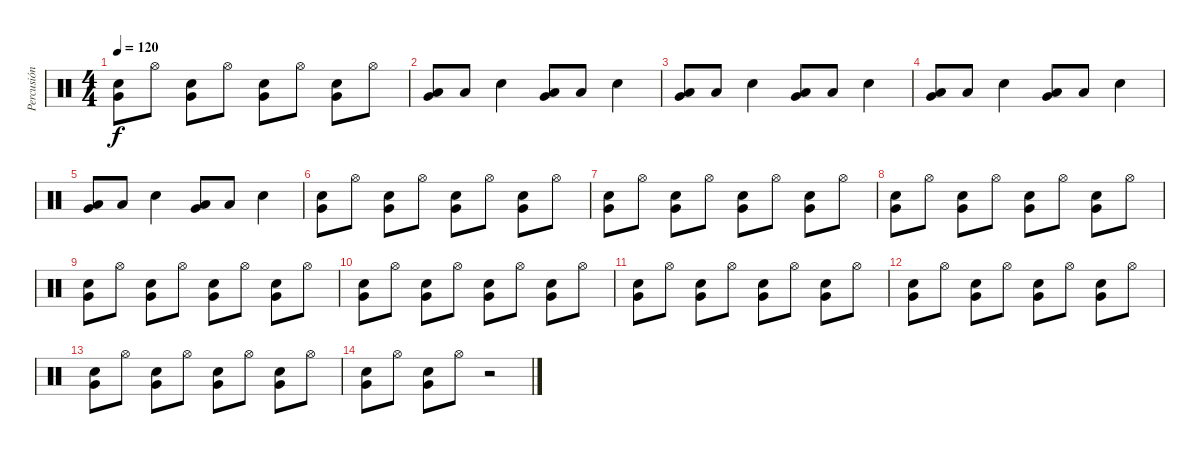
\track ("Percusión" "Percusión") {instrument percussion}
\staff {score}
\articulation defaults
\ts (4 4)
\tempo 120
\clef neutral
\ks c
("Electric Snare (hit)" "Very Low Tom (hit)").8{dy f} "Hi-Hat (open)".8 ("Electric Snare (hit)" "Very Low Tom (hit)").8 "Hi-Hat (open)".8 ("Electric Snare (hit)" "Very Low Tom (hit)").8 "Hi-Hat (open)".8 ("Electric Snare (hit)" "Very Low Tom (hit)").8 "Hi-Hat (open)".8 |
("Low Floor Tom (hit)" "Very Low Tom (hit)").8 "Low Floor Tom (hit)".8 "Electric Snare (hit)".4 ("Low Floor Tom (hit)" "Very Low Tom (hit)").8 "Low Floor Tom (hit)".8 "Electric Snare (hit)".4 |
("Low Floor Tom (hit)" "Very Low Tom (hit)").8 "Low Floor Tom (hit)".8 "Electric Snare (hit)".4 ("Low Floor Tom (hit)" "Very Low Tom (hit)").8 "Low Floor Tom (hit)".8 "Electric Snare (hit)".4 |
("Low Floor Tom (hit)" "Very Low Tom (hit)").8 "Low Floor Tom (hit)".8 "Electric Snare (hit)".4 ("Low Floor Tom (hit)" "Very Low Tom (hit)").8 "Low Floor Tom (hit)".8 "Electric Snare (hit)".4 |
("Low Floor Tom (hit)" "Very Low Tom (hit)").8 "Low Floor Tom (hit)".8 "Electric Snare (hit)".4 ("Low Floor Tom (hit)" "Very Low Tom (hit)").8 "Low Floor Tom (hit)".8 "Electric Snare (hit)".4 |
("Electric Snare (hit)" "Very Low Tom (hit)").8 "Hi-Hat (open)".8 ("Electric Snare (hit)" "Very Low Tom (hit)").8 "Hi-Hat (open)".8 ("Electric Snare (hit)" "Very Low Tom (hit)").8 "Hi-Hat (open)".8 ("Electric Snare (hit)" "Very Low Tom (hit)").8 "Hi-Hat (open)".8 |
("Electric Snare (hit)" "Very Low Tom (hit)").8 "Hi-Hat (open)".8 ("Electric Snare (hit)" "Very Low Tom (hit)").8 "Hi-Hat (open)".8 ("Electric Snare (hit)" "Very Low Tom (hit)").8 "Hi-Hat (open)".8 ("Electric Snare (hit)" "Very Low Tom (hit)").8 "Hi-Hat (open)".8 |
("Electric Snare (hit)" "Very Low Tom (hit)").8 "Hi-Hat (open)".8 ("Electric Snare (hit)" "Very Low Tom (hit)").8 "Hi-Hat (open)".8 ("Electric Snare (hit)" "Very Low Tom (hit)").8 "Hi-Hat (open)".8 ("Electric Snare (hit)" "Very Low Tom (hit)").8 "Hi-Hat (open)".8 |
("Electric Snare (hit)" "Very Low Tom (hit)").8 "Hi-Hat (open)".8 ("Electric Snare (hit)" "Very Low Tom (hit)").8 "Hi-Hat (open)".8 ("Electric Snare (hit)" "Very Low Tom (hit)").8 "Hi-Hat (open)".8 ("Electric Snare (hit)" "Very Low Tom (hit)").8 "Hi-Hat (open)".8 |
("Electric Snare (hit)" "Very Low Tom (hit)").8 "Hi-Hat (open)".8 ("Electric Snare (hit)" "Very Low Tom (hit)").8 "Hi-Hat (open)".8 ("Electric Snare (hit)" "Very Low Tom (hit)").8 "Hi-Hat (open)".8 ("Electric Snare (hit)" "Very Low Tom (hit)").8 "Hi-Hat (open)".8 |
("Electric Snare (hit)" "Very Low Tom (hit)").8 "Hi-Hat (open)".8 ("Electric Snare (hit)" "Very Low Tom (hit)").8 "Hi-Hat (open)".8 ("Electric Snare (hit)" "Very Low Tom (hit)").8 "Hi-Hat (open)".8 ("Electric Snare (hit)" "Very Low Tom (hit)").8 "Hi-Hat (open)".8 |
("Electric Snare (hit)" "Very Low Tom (hit)").8 "Hi-Hat (open)".8 ("Electric Snare (hit)" "Very Low Tom (hit)").8 "Hi-Hat (open)".8 ("Electric Snare (hit)" "Very Low Tom (hit)").8 "Hi-Hat (open)".8 ("Electric Snare (hit)" "Very Low Tom (hit)").8 "Hi-Hat (open)".8 |
("Electric Snare (hit)" "Very Low Tom (hit)").8 "Hi-Hat (open)".8 ("Electric Snare (hit)" "Very Low Tom (hit)").8 "Hi-Hat (open)".8 ("Electric Snare (hit)" "Very Low Tom (hit)").8 "Hi-Hat (open)".8 ("Electric Snare (hit)" "Very Low Tom (hit)").8 "Hi-Hat (open)".8 |
("Electric Snare (hit)" "Very Low Tom (hit)").8 "Hi-Hat (open)".8 ("Electric Snare (hit)" "Very Low Tom (hit)").8 "Hi-Hat (open)".8 r.2
